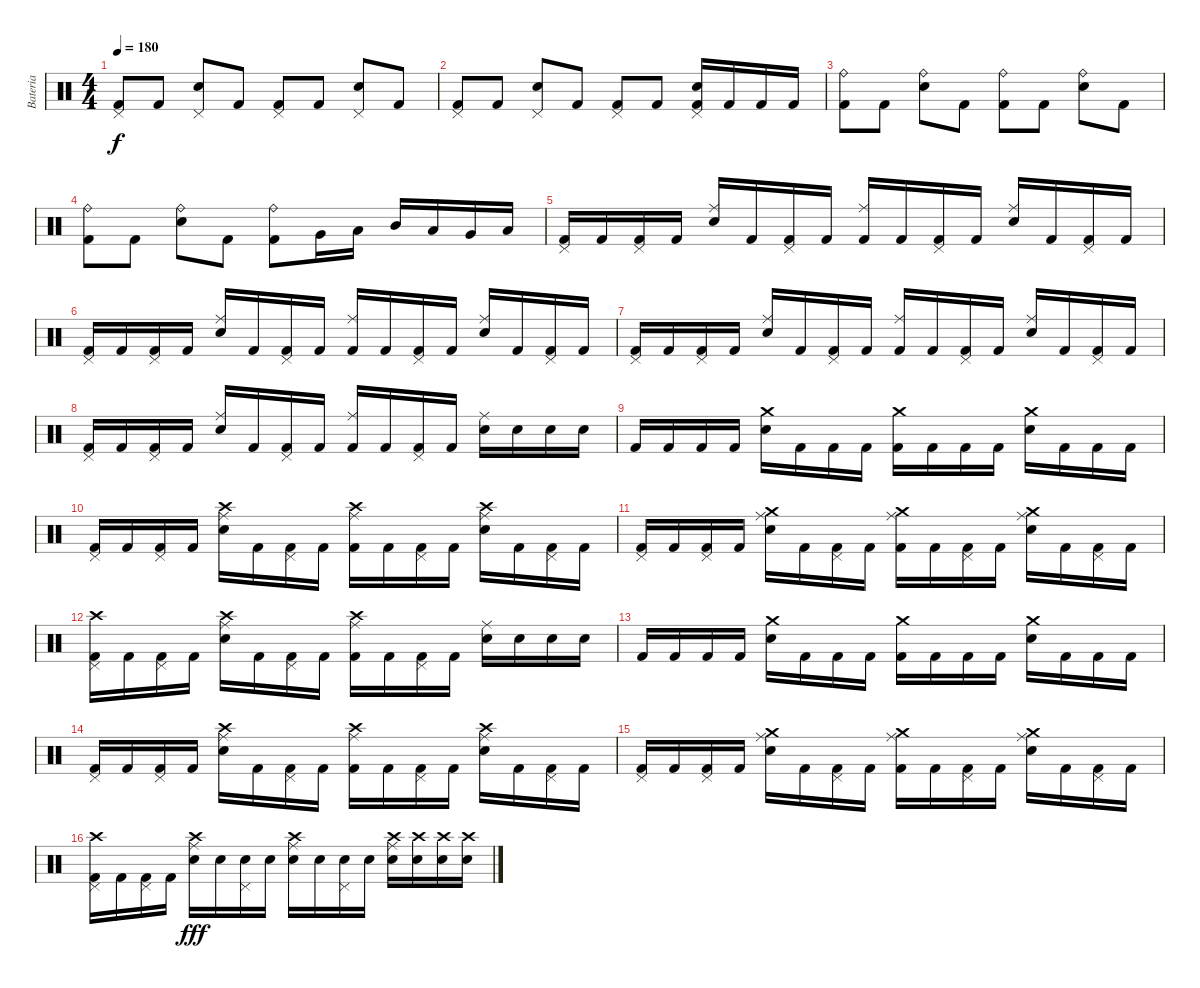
\track ("Bateria" "Bateria") {instrument percussion}
\staff {score}
\articulation defaults
\ts (4 4)
\tempo 180
\clef neutral
\ks c
("Kick (hit) 2" "Pedal Hi-Hat (hit)").8{dy f} "Kick (hit) 2".8 ("Electric Snare (hit)" "Pedal Hi-Hat (hit)").8 "Kick (hit) 2".8 ("Kick (hit) 2" "Pedal Hi-Hat (hit)").8 "Kick (hit) 2".8 ("Electric Snare (hit)" "Pedal Hi-Hat (hit)").8 "Kick (hit) 2".8 |
("Kick (hit) 2" "Pedal Hi-Hat (hit)").8 "Kick (hit) 2".8 ("Electric Snare (hit)" "Pedal Hi-Hat (hit)").8 "Kick (hit) 2".8 ("Kick (hit) 2" "Pedal Hi-Hat (hit)").8 "Kick (hit) 2".8 ("Kick (hit) 2" "Electric Snare (hit)" "Pedal Hi-Hat (hit)").16 "Kick (hit) 2".16 "Kick (hit) 2".16 "Kick (hit) 2".16 |
("Kick (hit) 2" "Ride (bell)").8 "Kick (hit) 2".8 ("Electric Snare (hit)" "Ride (bell)").8 "Kick (hit) 2".8 ("Kick (hit) 2" "Ride (bell)").8 "Kick (hit) 2".8 ("Electric Snare (hit)" "Ride (bell)").8 "Kick (hit) 2".8 |
("Kick (hit) 2" "Ride (bell)").8 "Kick (hit) 2".8 ("Electric Snare (hit)" "Ride (bell)").8 "Kick (hit) 2".8 ("Kick (hit) 2" "Ride (bell)").8 "Very Low Tom (hit)".16 "Low Floor Tom (hit)".16 "Mid Tom (hit)".16 "Low Tom (hit)".16 "Very Low Tom (hit)".16 "Low Floor Tom (hit)".16 |
("Kick (hit) 2" "Pedal Hi-Hat (hit)").16 "Kick (hit) 2".16 ("Kick (hit) 2" "Pedal Hi-Hat (hit)").16 "Kick (hit) 2".16 ("Electric Snare (hit)" "Ride (middle)").16 "Kick (hit) 2".16 ("Kick (hit) 2" "Pedal Hi-Hat (hit)").16 "Kick (hit) 2".16 ("Kick (hit) 2" "Ride (middle)").16 "Kick (hit) 2".16 ("Kick (hit) 2" "Pedal Hi-Hat (hit)").16 "Kick (hit) 2".16 ("Electric Snare (hit)" "Ride (middle)").16 "Kick (hit) 2".16 ("Kick (hit) 2" "Pedal Hi-Hat (hit)").16 "Kick (hit) 2".16 |
("Kick (hit) 2" "Pedal Hi-Hat (hit)").16 "Kick (hit) 2".16 ("Kick (hit) 2" "Pedal Hi-Hat (hit)").16 "Kick (hit) 2".16 ("Electric Snare (hit)" "Ride (middle)").16 "Kick (hit) 2".16 ("Kick (hit) 2" "Pedal Hi-Hat (hit)").16 "Kick (hit) 2".16 ("Kick (hit) 2" "Ride (middle)").16 "Kick (hit) 2".16 ("Kick (hit) 2" "Pedal Hi-Hat (hit)").16 "Kick (hit) 2".16 ("Electric Snare (hit)" "Ride (middle)").16 "Kick (hit) 2".16 ("Kick (hit) 2" "Pedal Hi-Hat (hit)").16 "Kick (hit) 2".16 |
("Kick (hit) 2" "Pedal Hi-Hat (hit)").16 "Kick (hit) 2".16 ("Kick (hit) 2" "Pedal Hi-Hat (hit)").16 "Kick (hit) 2".16 ("Electric Snare (hit)" "Ride (middle)").16 "Kick (hit) 2".16 ("Kick (hit) 2" "Pedal Hi-Hat (hit)").16 "Kick (hit) 2".16 ("Kick (hit) 2" "Ride (middle)").16 "Kick (hit) 2".16 ("Kick (hit) 2" "Pedal Hi-Hat (hit)").16 "Kick (hit) 2".16 ("Electric Snare (hit)" "Ride (middle)").16 "Kick (hit) 2".16 ("Kick (hit) 2" "Pedal Hi-Hat (hit)").16 "Kick (hit) 2".16 |
("Kick (hit) 2" "Pedal Hi-Hat (hit)").16 "Kick (hit) 2".16 ("Kick (hit) 2" "Pedal Hi-Hat (hit)").16 "Kick (hit) 2".16 ("Electric Snare (hit)" "Ride (middle)").16 "Kick (hit) 2".16 ("Kick (hit) 2" "Pedal Hi-Hat (hit)").16 "Kick (hit) 2".16 ("Kick (hit) 2" "Ride (middle)").16 "Kick (hit) 2".16 ("Kick (hit) 2" "Pedal Hi-Hat (hit)").16 "Kick (hit) 2".16 ("Electric Snare (hit)" "Ride (middle)").16 "Electric Snare (hit)".16 "Electric Snare (hit)".16 "Electric Snare (hit)".16 |
"Kick (hit) 2".16 "Kick (hit) 2".16 "Kick (hit) 2".16 "Kick (hit) 2".16 ("Electric Snare (hit)" "Crash medium (hit)").16 "Kick (hit) 2".16 "Kick (hit) 2".16 "Kick (hit) 2".16 ("Kick (hit) 2" "Crash medium (hit)").16 "Kick (hit) 2".16 "Kick (hit) 2".16 "Kick (hit) 2".16 ("Electric Snare (hit)" "Crash medium (hit)").16 "Kick (hit) 2".16 "Kick (hit) 2".16 "Kick (hit) 2".16 |
("Kick (hit) 2" "Pedal Hi-Hat (hit)").16 "Kick (hit) 2".16 ("Kick (hit) 2" "Pedal Hi-Hat (hit)").16 "Kick (hit) 2".16 ("Electric Snare (hit)" "Ride (middle)" "Crash high (hit)").16 "Kick (hit) 2".16 ("Kick (hit) 2" "Pedal Hi-Hat (hit)").16 "Kick (hit) 2".16 ("Kick (hit) 2" "Ride (middle)" "Crash high (hit)").16 "Kick (hit) 2".16 ("Kick (hit) 2" "Pedal Hi-Hat (hit)").16 "Kick (hit) 2".16 ("Electric Snare (hit)" "Ride (middle)" "Crash high (hit)").16 "Kick (hit) 2".16 ("Kick (hit) 2" "Pedal Hi-Hat (hit)").16 "Kick (hit) 2".16 |
("Kick (hit) 2" "Pedal Hi-Hat (hit)").16 "Kick (hit) 2".16 ("Kick (hit) 2" "Pedal Hi-Hat (hit)").16 "Kick (hit) 2".16 ("Electric Snare (hit)" "Ride (middle)" "Crash medium (hit)").16 "Kick (hit) 2".16 ("Kick (hit) 2" "Pedal Hi-Hat (hit)").16 "Kick (hit) 2".16 ("Kick (hit) 2" "Ride (middle)" "Crash medium (hit)").16 "Kick (hit) 2".16 ("Kick (hit) 2" "Pedal Hi-Hat (hit)").16 "Kick (hit) 2".16 ("Electric Snare (hit)" "Ride (middle)" "Crash medium (hit)").16 "Kick (hit) 2".16 ("Kick (hit) 2" "Pedal Hi-Hat (hit)").16 "Kick (hit) 2".16 |
("Kick (hit) 2" "Pedal Hi-Hat (hit)" "Crash high (hit)").16 "Kick (hit) 2".16 ("Kick (hit) 2" "Pedal Hi-Hat (hit)").16 "Kick (hit) 2".16 ("Electric Snare (hit)" "Ride (middle)" "Crash high (hit)").16 "Kick (hit) 2".16 ("Kick (hit) 2" "Pedal Hi-Hat (hit)").16 "Kick (hit) 2".16 ("Kick (hit) 2" "Ride (middle)" "Crash high (hit)").16 "Kick (hit) 2".16 ("Kick (hit) 2" "Pedal Hi-Hat (hit)").16 "Kick (hit) 2".16 ("Electric Snare (hit)" "Ride (middle)").16 "Electric Snare (hit)".16 "Electric Snare (hit)".16 "Electric Snare (hit)".16 |
"Kick (hit) 2".16 "Kick (hit) 2".16 "Kick (hit) 2".16 "Kick (hit) 2".16 ("Electric Snare (hit)" "Crash medium (hit)").16 "Kick (hit) 2".16 "Kick (hit) 2".16 "Kick (hit) 2".16 ("Kick (hit) 2" "Crash medium (hit)").16 "Kick (hit) 2".16 "Kick (hit) 2".16 "Kick (hit) 2".16 ("Electric Snare (hit)" "Crash medium (hit)").16 "Kick (hit) 2".16 "Kick (hit) 2".16 "Kick (hit) 2".16 |
("Kick (hit) 2" "Pedal Hi-Hat (hit)").16 "Kick (hit) 2".16 ("Kick (hit) 2" "Pedal Hi-Hat (hit)").16 "Kick (hit) 2".16 ("Electric Snare (hit)" "Ride (middle)" "Crash high (hit)").16 "Kick (hit) 2".16 ("Kick (hit) 2" "Pedal Hi-Hat (hit)").16 "Kick (hit) 2".16 ("Kick (hit) 2" "Ride (middle)" "Crash high (hit)").16 "Kick (hit) 2".16 ("Kick (hit) 2" "Pedal Hi-Hat (hit)").16 "Kick (hit) 2".16 ("Electric Snare (hit)" "Ride (middle)" "Crash high (hit)").16 "Kick (hit) 2".16 ("Kick (hit) 2" "Pedal Hi-Hat (hit)").16 "Kick (hit) 2".16 |
("Kick (hit) 2" "Pedal Hi-Hat (hit)").16 "Kick (hit) 2".16 ("Kick (hit) 2" "Pedal Hi-Hat (hit)").16 "Kick (hit) 2".16 ("Electric Snare (hit)" "Ride (middle)" "Crash medium (hit)").16 "Kick (hit) 2".16 ("Kick (hit) 2" "Pedal Hi-Hat (hit)").16 "Kick (hit) 2".16 ("Kick (hit) 2" "Ride (middle)" "Crash medium (hit)").16 "Kick (hit) 2".16 ("Kick (hit) 2" "Pedal Hi-Hat (hit)").16 "Kick (hit) 2".16 ("Electric Snare (hit)" "Ride (middle)" "Crash medium (hit)").16 "Kick (hit) 2".16 ("Kick (hit) 2" "Pedal Hi-Hat (hit)").16 "Kick (hit) 2".16 |
("Kick (hit) 2" "Pedal Hi-Hat (hit)" "Crash high (hit)").16 "Kick (hit) 2".16 ("Kick (hit) 2" "Pedal Hi-Hat (hit)").16 "Kick (hit) 2".16 ("Electric Snare (hit)" "Ride (middle)" "Crash high (hit)").16{dy fff} "Electric Snare (hit)".16 ("Electric Snare (hit)" "Pedal Hi-Hat (hit)").16 "Electric Snare (hit)".16 ("Electric Snare (hit)" "Ride (middle)" "Crash high (hit)").16 "Electric Snare (hit)".16 ("Electric Snare (hit)" "Pedal Hi-Hat (hit)").16 "Electric Snare (hit)".16 ("Crash high (hit)" "Electric Snare (hit)" "Ride (middle)").16 ("Crash high (hit)" "Electric Snare (hit)").16 ("Crash high (hit)" "Electric Snare (hit)").16 ("Crash high (hit)" "Electric Snare (hit)").16
